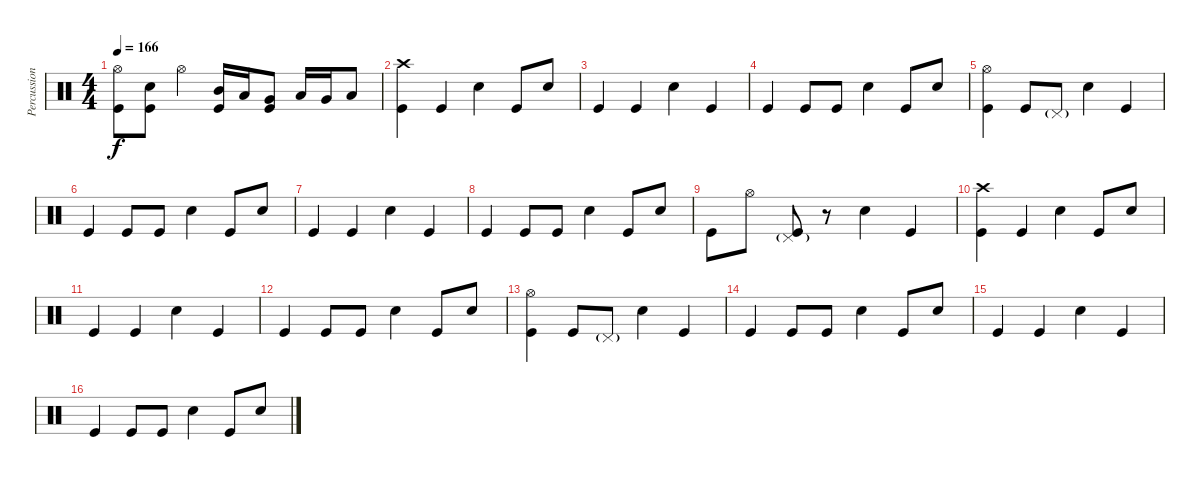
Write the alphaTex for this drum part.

\track ("Percussion" "Percussion") {instrument percussion}
\staff {score}
\articulation defaults
\ts (4 4)
\tempo 166
\clef neutral
\ks c
("Hi-Hat (open)" "Kick (hit)").8{dy f} ("Electric Snare (hit)" "Kick (hit)").8 "Hi-Hat (open)".4 ("Mid Tom (hit)" "Kick (hit)").16 "Low Tom (hit)".16 ("Very Low Tom (hit)" "Kick (hit)").8 "Low Tom (hit)".16 "Very Low Tom (hit)".16 "Low Floor Tom (hit)".8 |
("Crash high (hit)" "Kick (hit)").4 "Kick (hit)".4 "Electric Snare (hit)".4 "Kick (hit)".8 "Electric Snare (hit)".8 |
"Kick (hit)".4 "Kick (hit)".4 "Electric Snare (hit)".4 "Kick (hit)".4 |
"Kick (hit)".4 "Kick (hit)".8 "Kick (hit)".8 "Electric Snare (hit)".4 "Kick (hit)".8 "Electric Snare (hit)".8 |
("Hi-Hat (open)" "Kick (hit)").4 "Kick (hit)".8 "Pedal Hi-Hat (hit)"{g}.8 "Electric Snare (hit)".4 "Kick (hit)".4 |
"Kick (hit)".4 "Kick (hit)".8 "Kick (hit)".8 "Electric Snare (hit)".4 "Kick (hit)".8 "Electric Snare (hit)".8 |
"Kick (hit)".4 "Kick (hit)".4 "Electric Snare (hit)".4 "Kick (hit)".4 |
"Kick (hit)".4 "Kick (hit)".8 "Kick (hit)".8 "Electric Snare (hit)".4 "Kick (hit)".8 "Electric Snare (hit)".8 |
"Kick (hit)".8 "Hi-Hat (open)".8 ("Pedal Hi-Hat (hit)"{g} "Kick (hit)").8 r.8 "Electric Snare (hit)".4 "Kick (hit)".4 |
("Crash high (hit)" "Kick (hit)").4 "Kick (hit)".4 "Electric Snare (hit)".4 "Kick (hit)".8 "Electric Snare (hit)".8 |
"Kick (hit)".4 "Kick (hit)".4 "Electric Snare (hit)".4 "Kick (hit)".4 |
"Kick (hit)".4 "Kick (hit)".8 "Kick (hit)".8 "Electric Snare (hit)".4 "Kick (hit)".8 "Electric Snare (hit)".8 |
("Hi-Hat (open)" "Kick (hit)").4 "Kick (hit)".8 "Pedal Hi-Hat (hit)"{g}.8 "Electric Snare (hit)".4 "Kick (hit)".4 |
"Kick (hit)".4 "Kick (hit)".8 "Kick (hit)".8 "Electric Snare (hit)".4 "Kick (hit)".8 "Electric Snare (hit)".8 |
"Kick (hit)".4 "Kick (hit)".4 "Electric Snare (hit)".4 "Kick (hit)".4 |
"Kick (hit)".4 "Kick (hit)".8 "Kick (hit)".8 "Electric Snare (hit)".4 "Kick (hit)".8 "Electric Snare (hit)".8
